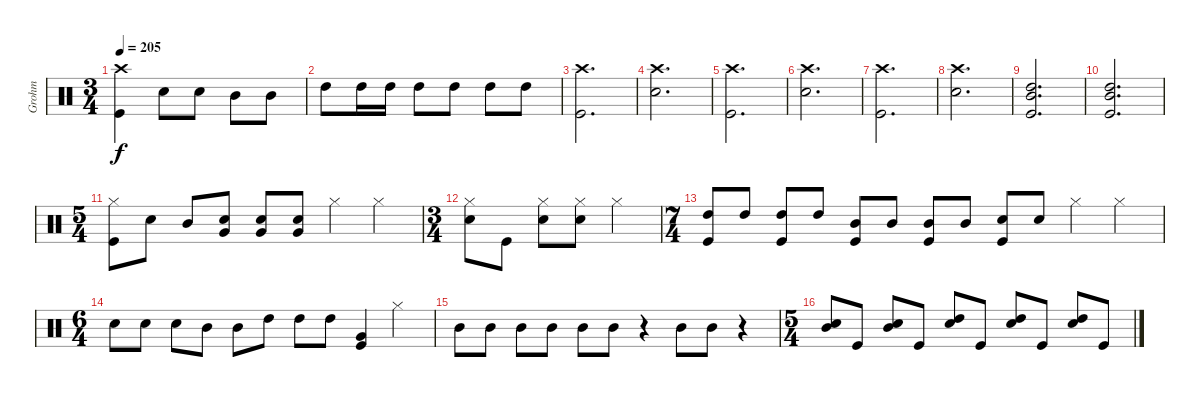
\track ("Grohm" "Grohm") {instrument percussion}
\staff {score}
\articulation defaults
\ts (3 4)
\tempo 205
\clef neutral
\ks c
("Crash high (hit)" "Kick (hit)").4{dy f} "Snare (hit) 2".8 "Snare (hit) 2".8 "Mid Tom (hit)".8 "Mid Tom (hit)".8 |
"High Tom (hit)".8 "High Tom (hit)".16 "High Tom (hit)".16 "High Tom (hit)".8 "High Tom (hit)".8 "High Tom (hit)".8 "High Tom (hit)".8 |
("Crash high (hit)" "Kick (hit)").2{d} |
("Crash high (hit)" "Snare (hit) 2").2{d} |
("Crash high (hit)" "Kick (hit)").2{d} |
("Crash high (hit)" "Snare (hit) 2").2{d} |
("Crash high (hit)" "Kick (hit)").2{d} |
("Crash high (hit)" "Snare (hit) 2").2{d} |
("High Tom (hit)" "Mid Tom (hit)" "Kick (hit)").2{d} |
("High Tom (hit)" "Mid Tom (hit)" "Kick (hit)").2{d} |
\ts (5 4)
("Hi-Hat (closed)" "Kick (hit)").8 "Snare (hit) 2".8 "Mid Tom (hit)".8 ("Very Low Tom (hit)" "Snare (hit) 2").8 ("Very Low Tom (hit)" "Snare (hit) 2").8 ("Very Low Tom (hit)" "Snare (hit) 2").8 "Hi-Hat (closed)".4 "Hi-Hat (closed)".4 |
\ts (3 4)
("Hi-Hat (closed)" "Snare (hit) 2").8 "Kick (hit)".8 ("Hi-Hat (closed)" "Snare (hit) 2").8 ("Hi-Hat (closed)" "Snare (hit) 2").8 "Hi-Hat (closed)".4 |
\ts (7 4)
("High Tom (hit)" "Kick (hit)").8 "High Tom (hit)".8 ("High Tom (hit)" "Kick (hit)").8 "High Tom (hit)".8 ("Mid Tom (hit)" "Kick (hit)").8 "Mid Tom (hit)".8 ("Mid Tom (hit)" "Kick (hit)").8 "Mid Tom (hit)".8 ("Snare (hit) 2" "Kick (hit)").8 "Snare (hit) 2".8 "Hi-Hat (closed)".4 "Hi-Hat (closed)".4 |
\ts (6 4)
"Snare (hit) 2".8 "Snare (hit) 2".8 "Snare (hit) 2".8 "Mid Tom (hit)".8 "Mid Tom (hit)".8 "High Tom (hit)".8 "High Tom (hit)".8 "High Tom (hit)".8 ("Very Low Tom (hit)" "Kick (hit)").4 "Hi-Hat (closed)".4 |
"Mid Tom (hit)".8 "Mid Tom (hit)".8 "Mid Tom (hit)".8 "Mid Tom (hit)".8 "Mid Tom (hit)".8 "Mid Tom (hit)".8 r.4 "Mid Tom (hit)".8 "Mid Tom (hit)".8 r.4 |
\ts (5 4)
("Mid Tom (hit)" "Snare (hit) 2").8 "Kick (hit)".8 ("Mid Tom (hit)" "Snare (hit) 2").8 "Kick (hit)".8 ("High Tom (hit)" "Snare (hit) 2").8 "Kick (hit)".8 ("High Tom (hit)" "Snare (hit) 2").8 "Kick (hit)".8 ("High Tom (hit)" "Snare (hit) 2").8 "Kick (hit)".8
